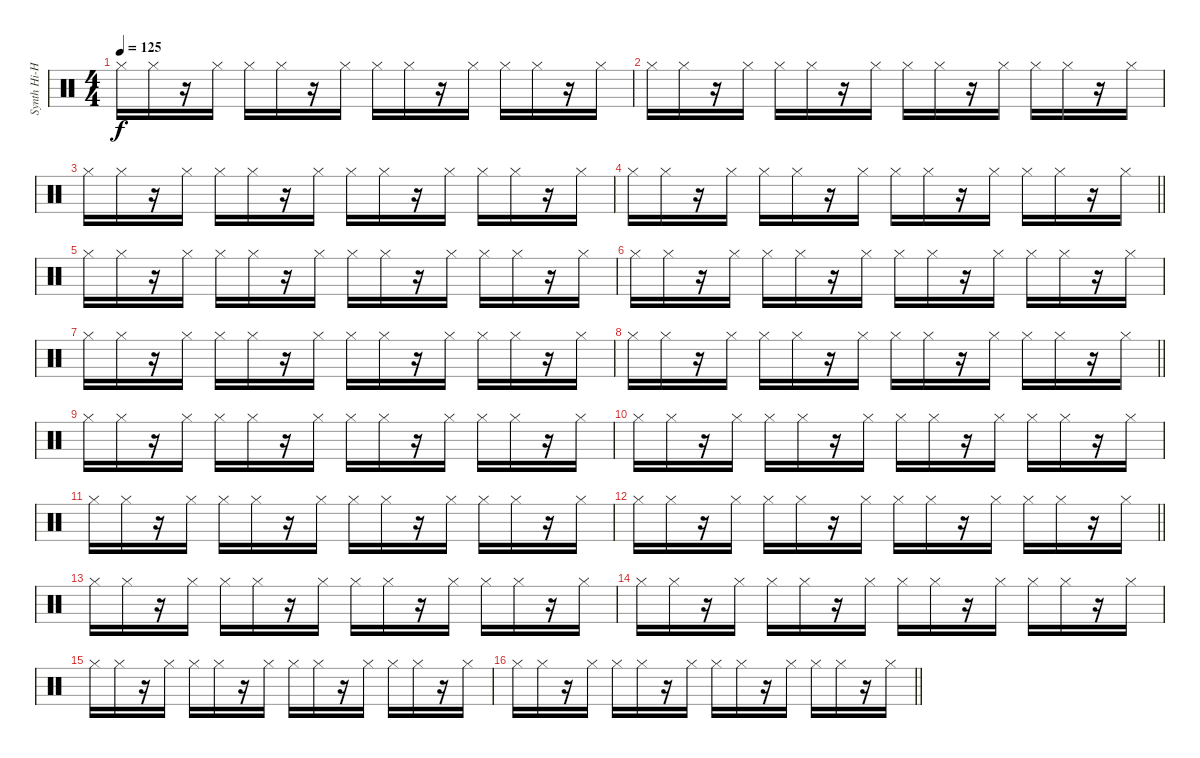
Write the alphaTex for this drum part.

\track ("Synth Hi-Hat (Gillian)" "Synth Hi-H") {instrument percussion}
\staff {score}
\articulation defaults
\ts (4 4)
\tempo 125
\clef neutral
\ks c "Hi-Hat (closed)".16{dy f} "Hi-Hat (closed)".16
r.16 "Hi-Hat (closed)".16 "Hi-Hat (closed)".16 "Hi-Hat (closed)".16 r.16 "Hi-Hat (closed)".16 "Hi-Hat (closed)".16 "Hi-Hat (closed)".16 r.16 "Hi-Hat (closed)".16 "Hi-Hat (closed)".16 "Hi-Hat (closed)".16 r.16 "Hi-Hat (closed)".16 |
"Hi-Hat (closed)".16 "Hi-Hat (closed)".16 r.16 "Hi-Hat (closed)".16 "Hi-Hat (closed)".16 "Hi-Hat (closed)".16 r.16 "Hi-Hat (closed)".16 "Hi-Hat (closed)".16 "Hi-Hat (closed)".16 r.16 "Hi-Hat (closed)".16 "Hi-Hat (closed)".16 "Hi-Hat (closed)".16 r.16 "Hi-Hat (closed)".16 |
"Hi-Hat (closed)".16 "Hi-Hat (closed)".16 r.16 "Hi-Hat (closed)".16 "Hi-Hat (closed)".16 "Hi-Hat (closed)".16 r.16 "Hi-Hat (closed)".16 "Hi-Hat (closed)".16 "Hi-Hat (closed)".16 r.16 "Hi-Hat (closed)".16 "Hi-Hat (closed)".16 "Hi-Hat (closed)".16 r.16 "Hi-Hat (closed)".16 |
\barLineRight lightlight "Hi-Hat (closed)".16 "Hi-Hat (closed)".16
r.16 "Hi-Hat (closed)".16 "Hi-Hat (closed)".16 "Hi-Hat (closed)".16 r.16 "Hi-Hat (closed)".16 "Hi-Hat (closed)".16 "Hi-Hat (closed)".16 r.16 "Hi-Hat (closed)".16 "Hi-Hat (closed)".16 "Hi-Hat (closed)".16 r.16 "Hi-Hat (closed)".16 |
"Hi-Hat (closed)".16 "Hi-Hat (closed)".16 r.16 "Hi-Hat (closed)".16 "Hi-Hat (closed)".16 "Hi-Hat (closed)".16 r.16 "Hi-Hat (closed)".16 "Hi-Hat (closed)".16 "Hi-Hat (closed)".16 r.16 "Hi-Hat (closed)".16 "Hi-Hat (closed)".16 "Hi-Hat (closed)".16 r.16 "Hi-Hat (closed)".16 |
"Hi-Hat (closed)".16 "Hi-Hat (closed)".16 r.16 "Hi-Hat (closed)".16 "Hi-Hat (closed)".16 "Hi-Hat (closed)".16 r.16 "Hi-Hat (closed)".16 "Hi-Hat (closed)".16 "Hi-Hat (closed)".16 r.16 "Hi-Hat (closed)".16 "Hi-Hat (closed)".16 "Hi-Hat (closed)".16 r.16 "Hi-Hat (closed)".16 |
"Hi-Hat (closed)".16 "Hi-Hat (closed)".16 r.16 "Hi-Hat (closed)".16 "Hi-Hat (closed)".16 "Hi-Hat (closed)".16 r.16 "Hi-Hat (closed)".16 "Hi-Hat (closed)".16 "Hi-Hat (closed)".16 r.16 "Hi-Hat (closed)".16 "Hi-Hat (closed)".16 "Hi-Hat (closed)".16 r.16 "Hi-Hat (closed)".16 |
\barLineRight lightlight "Hi-Hat (closed)".16 "Hi-Hat (closed)".16
r.16 "Hi-Hat (closed)".16 "Hi-Hat (closed)".16 "Hi-Hat (closed)".16 r.16 "Hi-Hat (closed)".16 "Hi-Hat (closed)".16 "Hi-Hat (closed)".16 r.16 "Hi-Hat (closed)".16 "Hi-Hat (closed)".16 "Hi-Hat (closed)".16 r.16 "Hi-Hat (closed)".16 |
"Hi-Hat (closed)".16 "Hi-Hat (closed)".16 r.16 "Hi-Hat (closed)".16 "Hi-Hat (closed)".16 "Hi-Hat (closed)".16 r.16 "Hi-Hat (closed)".16 "Hi-Hat (closed)".16 "Hi-Hat (closed)".16 r.16 "Hi-Hat (closed)".16 "Hi-Hat (closed)".16 "Hi-Hat (closed)".16 r.16 "Hi-Hat (closed)".16 |
"Hi-Hat (closed)".16 "Hi-Hat (closed)".16 r.16 "Hi-Hat (closed)".16 "Hi-Hat (closed)".16 "Hi-Hat (closed)".16 r.16 "Hi-Hat (closed)".16 "Hi-Hat (closed)".16 "Hi-Hat (closed)".16 r.16 "Hi-Hat (closed)".16 "Hi-Hat (closed)".16 "Hi-Hat (closed)".16 r.16 "Hi-Hat (closed)".16 |
"Hi-Hat (closed)".16 "Hi-Hat (closed)".16 r.16 "Hi-Hat (closed)".16 "Hi-Hat (closed)".16 "Hi-Hat (closed)".16 r.16 "Hi-Hat (closed)".16 "Hi-Hat (closed)".16 "Hi-Hat (closed)".16 r.16 "Hi-Hat (closed)".16 "Hi-Hat (closed)".16 "Hi-Hat (closed)".16 r.16 "Hi-Hat (closed)".16 |
\barLineRight lightlight "Hi-Hat (closed)".16 "Hi-Hat (closed)".16
r.16 "Hi-Hat (closed)".16 "Hi-Hat (closed)".16 "Hi-Hat (closed)".16 r.16 "Hi-Hat (closed)".16 "Hi-Hat (closed)".16 "Hi-Hat (closed)".16 r.16 "Hi-Hat (closed)".16 "Hi-Hat (closed)".16 "Hi-Hat (closed)".16 r.16 "Hi-Hat (closed)".16 |
"Hi-Hat (closed)".16 "Hi-Hat (closed)".16 r.16 "Hi-Hat (closed)".16 "Hi-Hat (closed)".16 "Hi-Hat (closed)".16 r.16 "Hi-Hat (closed)".16 "Hi-Hat (closed)".16 "Hi-Hat (closed)".16 r.16 "Hi-Hat (closed)".16 "Hi-Hat (closed)".16 "Hi-Hat (closed)".16 r.16 "Hi-Hat (closed)".16 |
"Hi-Hat (closed)".16 "Hi-Hat (closed)".16 r.16 "Hi-Hat (closed)".16 "Hi-Hat (closed)".16 "Hi-Hat (closed)".16 r.16 "Hi-Hat (closed)".16 "Hi-Hat (closed)".16 "Hi-Hat (closed)".16 r.16 "Hi-Hat (closed)".16 "Hi-Hat (closed)".16 "Hi-Hat (closed)".16 r.16 "Hi-Hat (closed)".16 |
"Hi-Hat (closed)".16 "Hi-Hat (closed)".16 r.16 "Hi-Hat (closed)".16 "Hi-Hat (closed)".16 "Hi-Hat (closed)".16 r.16 "Hi-Hat (closed)".16 "Hi-Hat (closed)".16 "Hi-Hat (closed)".16 r.16 "Hi-Hat (closed)".16 "Hi-Hat (closed)".16 "Hi-Hat (closed)".16 r.16 "Hi-Hat (closed)".16 |
\barLineRight lightlight "Hi-Hat (closed)".16 "Hi-Hat (closed)".16
r.16 "Hi-Hat (closed)".16 "Hi-Hat (closed)".16 "Hi-Hat (closed)".16 r.16 "Hi-Hat (closed)".16 "Hi-Hat (closed)".16 "Hi-Hat (closed)".16 r.16 "Hi-Hat (closed)".16 "Hi-Hat (closed)".16 "Hi-Hat (closed)".16 r.16 "Hi-Hat (closed)".16
